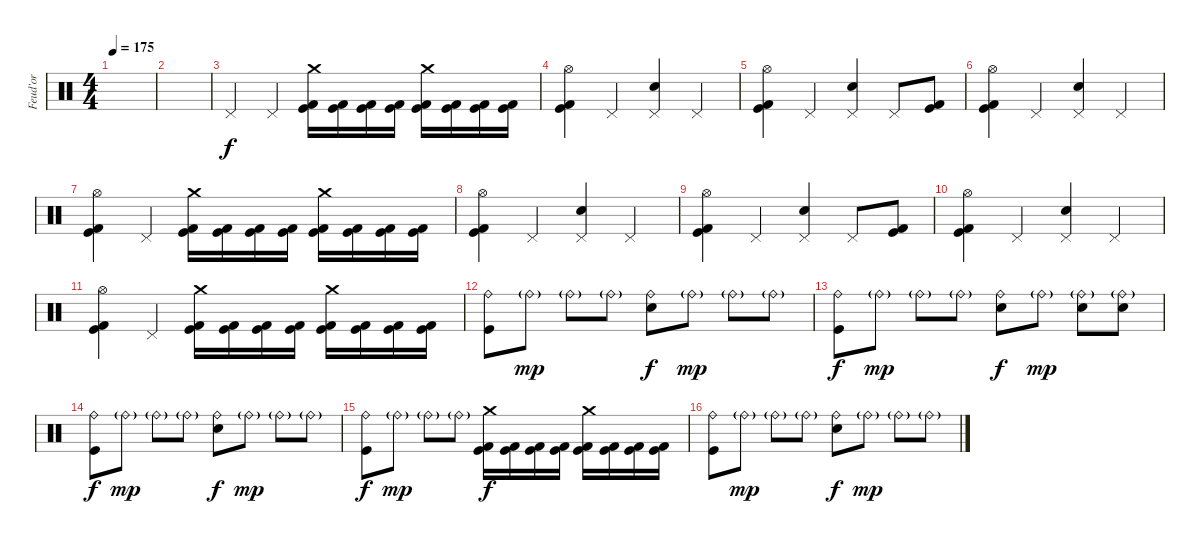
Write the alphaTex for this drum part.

\track ("Feud'or" "Feud'or") {instrument percussion}
\staff {score}
\articulation defaults
\ts (4 4)
\tempo 175
\clef neutral
\ks c
|
|
"Pedal Hi-Hat (hit)".4 "Pedal Hi-Hat (hit)".4 ("Crash medium (hit)" "Kick (hit) 2" "Kick (hit)").16{dy f} ("Kick (hit) 2" "Kick (hit)").16 ("Kick (hit) 2" "Kick (hit)").16 ("Kick (hit) 2" "Kick (hit)").16 ("Crash medium (hit)" "Kick (hit) 2" "Kick (hit)").16 ("Kick (hit) 2" "Kick (hit)").16 ("Kick (hit) 2" "Kick (hit)").16 ("Kick (hit) 2" "Kick (hit)").16 |
("Hi-Hat (open)" "Kick (hit) 2" "Kick (hit)").4 "Pedal Hi-Hat (hit)".4 ("Pedal Hi-Hat (hit)" "Snare (hit) 2").4 "Pedal Hi-Hat (hit)".4 |
("Hi-Hat (open)" "Kick (hit) 2" "Kick (hit)").4 "Pedal Hi-Hat (hit)".4 ("Pedal Hi-Hat (hit)" "Snare (hit) 2").4 "Pedal Hi-Hat (hit)".8 ("Kick (hit) 2" "Kick (hit)").8 |
("Hi-Hat (open)" "Kick (hit) 2" "Kick (hit)").4 "Pedal Hi-Hat (hit)".4 ("Pedal Hi-Hat (hit)" "Snare (hit) 2").4 "Pedal Hi-Hat (hit)".4 |
("Hi-Hat (open)" "Kick (hit) 2" "Kick (hit)").4 "Pedal Hi-Hat (hit)".4 ("Crash medium (hit)" "Kick (hit) 2" "Kick (hit)").16 ("Kick (hit) 2" "Kick (hit)").16 ("Kick (hit) 2" "Kick (hit)").16 ("Kick (hit) 2" "Kick (hit)").16 ("Crash medium (hit)" "Kick (hit) 2" "Kick (hit)").16 ("Kick (hit) 2" "Kick (hit)").16 ("Kick (hit) 2" "Kick (hit)").16 ("Kick (hit) 2" "Kick (hit)").16 |
("Hi-Hat (open)" "Kick (hit) 2" "Kick (hit)").4 "Pedal Hi-Hat (hit)".4 ("Pedal Hi-Hat (hit)" "Snare (hit) 2").4 "Pedal Hi-Hat (hit)".4 |
("Hi-Hat (open)" "Kick (hit) 2" "Kick (hit)").4 "Pedal Hi-Hat (hit)".4 ("Pedal Hi-Hat (hit)" "Snare (hit) 2").4 "Pedal Hi-Hat (hit)".8 ("Kick (hit) 2" "Kick (hit)").8 |
("Hi-Hat (open)" "Kick (hit) 2" "Kick (hit)").4 "Pedal Hi-Hat (hit)".4 ("Pedal Hi-Hat (hit)" "Snare (hit) 2").4 "Pedal Hi-Hat (hit)".4 |
("Hi-Hat (open)" "Kick (hit) 2" "Kick (hit)").4 "Pedal Hi-Hat (hit)".4 ("Crash medium (hit)" "Kick (hit) 2" "Kick (hit)").16 ("Kick (hit) 2" "Kick (hit)").16 ("Kick (hit) 2" "Kick (hit)").16 ("Kick (hit) 2" "Kick (hit)").16 ("Crash medium (hit)" "Kick (hit) 2" "Kick (hit)").16 ("Kick (hit) 2" "Kick (hit)").16 ("Kick (hit) 2" "Kick (hit)").16 ("Kick (hit) 2" "Kick (hit)").16 |
("Ride (bell)" "Kick (hit)").8 "Ride (bell)"{g}.8{dy mp} "Ride (bell)"{g}.8 "Ride (bell)"{g}.8 ("Ride (bell)" "Snare (hit) 2").8{dy f} "Ride (bell)"{g}.8{dy mp} "Ride (bell)"{g}.8 "Ride (bell)"{g}.8 |
("Ride (bell)" "Kick (hit)").8{dy f} "Ride (bell)"{g}.8{dy mp} "Ride (bell)"{g}.8 "Ride (bell)"{g}.8 ("Ride (bell)" "Snare (hit) 2").8{dy f} "Ride (bell)"{g}.8{dy mp} ("Ride (bell)"{g} "Snare (hit) 2").8 ("Ride (bell)"{g} "Snare (hit) 2").8 |
("Ride (bell)" "Kick (hit)").8{dy f} "Ride (bell)"{g}.8{dy mp} "Ride (bell)"{g}.8 "Ride (bell)"{g}.8 ("Ride (bell)" "Snare (hit) 2").8{dy f} "Ride (bell)"{g}.8{dy mp} "Ride (bell)"{g}.8 "Ride (bell)"{g}.8 |
("Ride (bell)" "Kick (hit)").8{dy f} "Ride (bell)"{g}.8{dy mp} "Ride (bell)"{g}.8 "Ride (bell)"{g}.8 ("Crash medium (hit)" "Kick (hit) 2" "Kick (hit)").16{dy f} ("Kick (hit) 2" "Kick (hit)").16 ("Kick (hit) 2" "Kick (hit)").16 ("Kick (hit) 2" "Kick (hit)").16 ("Crash medium (hit)" "Kick (hit) 2" "Kick (hit)").16 ("Kick (hit) 2" "Kick (hit)").16 ("Kick (hit) 2" "Kick (hit)").16 ("Kick (hit) 2" "Kick (hit)").16 |
("Ride (bell)" "Kick (hit)").8 "Ride (bell)"{g}.8{dy mp} "Ride (bell)"{g}.8 "Ride (bell)"{g}.8 ("Ride (bell)" "Snare (hit) 2").8{dy f} "Ride (bell)"{g}.8{dy mp} "Ride (bell)"{g}.8 "Ride (bell)"{g}.8
